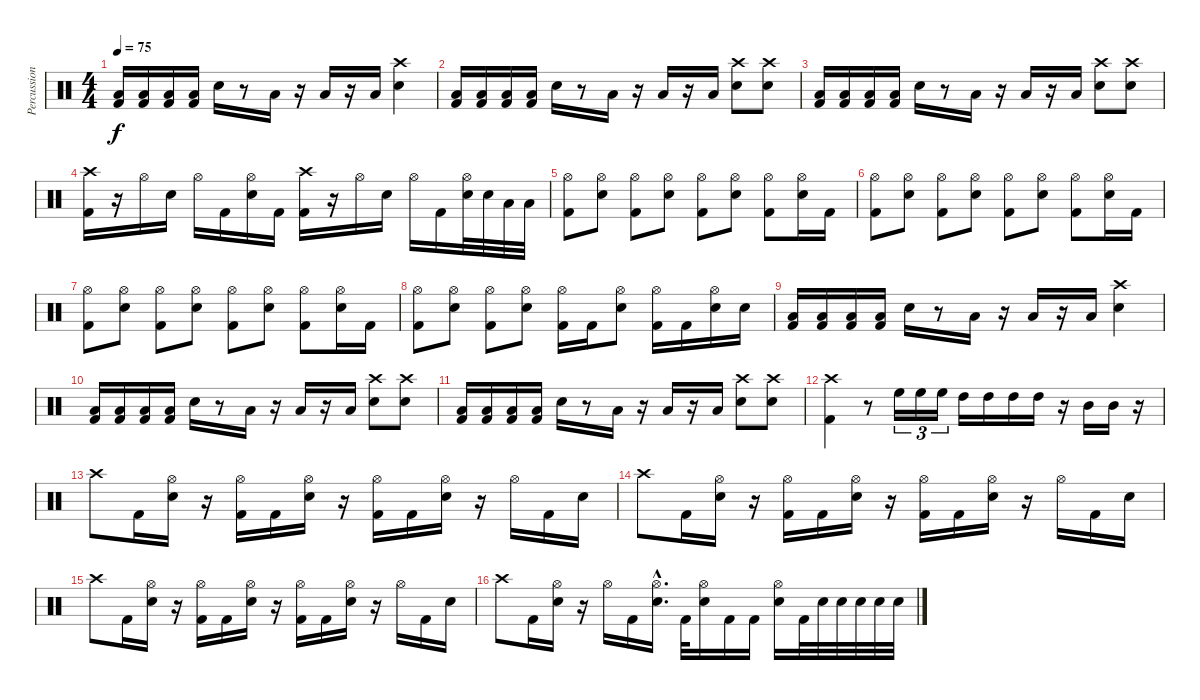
\track ("Percussion" "Percussion") {instrument percussion}
\staff {score}
\articulation defaults
\ts (4 4)
\tempo 75
\clef neutral
\ks c
("Kick (hit) 2" "Low Tom (hit)").16{dy f} ("Kick (hit) 2" "Low Tom (hit)").16 ("Kick (hit) 2" "Low Tom (hit)").16 ("Kick (hit) 2" "Low Tom (hit)").16 "Snare (hit) 2".16 r.8 "Low Tom (hit)".16 r.16 "Low Tom (hit)".16 r.16 "Low Tom (hit)".16 ("Crash high (hit)" "Snare (hit) 2").4 |
("Kick (hit) 2" "Low Tom (hit)").16 ("Kick (hit) 2" "Low Tom (hit)").16 ("Kick (hit) 2" "Low Tom (hit)").16 ("Kick (hit) 2" "Low Tom (hit)").16 "Snare (hit) 2".16 r.8 "Low Tom (hit)".16 r.16 "Low Tom (hit)".16 r.16 "Low Tom (hit)".16 ("Crash high (hit)" "Snare (hit) 2").8 ("Crash high (hit)" "Snare (hit) 2").8 |
("Kick (hit) 2" "Low Tom (hit)").16 ("Kick (hit) 2" "Low Tom (hit)").16 ("Kick (hit) 2" "Low Tom (hit)").16 ("Kick (hit) 2" "Low Tom (hit)").16 "Snare (hit) 2".16 r.8 "Low Tom (hit)".16 r.16 "Low Tom (hit)".16 r.16 "Low Tom (hit)".16 ("Crash high (hit)" "Snare (hit) 2").8 ("Crash high (hit)" "Snare (hit) 2").8 |
("Crash high (hit)" "Kick (hit) 2").16 r.16 "Hi-Hat (open)".16 "Snare (hit) 2".16 "Hi-Hat (open)".16 "Kick (hit) 2".16 ("Hi-Hat (open)" "Snare (hit) 2").16 "Kick (hit) 2".16 ("Crash high (hit)" "Kick (hit) 2").16 r.16 "Hi-Hat (open)".16 "Snare (hit) 2".16 "Hi-Hat (open)".16 "Kick (hit) 2".16 ("Hi-Hat (open)" "Snare (hit) 2").32 "Snare (hit) 2".32 "Low Tom (hit)".32 "Low Tom (hit)".32 |
("Hi-Hat (open)" "Kick (hit) 2").8 ("Hi-Hat (open)" "Snare (hit) 2").8 ("Hi-Hat (open)" "Kick (hit) 2").8 ("Hi-Hat (open)" "Snare (hit) 2").8 ("Hi-Hat (open)" "Kick (hit) 2").8 ("Hi-Hat (open)" "Snare (hit) 2").8 ("Hi-Hat (open)" "Kick (hit) 2").8 ("Hi-Hat (open)" "Snare (hit) 2").16 "Kick (hit) 2".16 |
("Hi-Hat (open)" "Kick (hit) 2").8 ("Hi-Hat (open)" "Snare (hit) 2").8 ("Hi-Hat (open)" "Kick (hit) 2").8 ("Hi-Hat (open)" "Snare (hit) 2").8 ("Hi-Hat (open)" "Kick (hit) 2").8 ("Hi-Hat (open)" "Snare (hit) 2").8 ("Hi-Hat (open)" "Kick (hit) 2").8 ("Hi-Hat (open)" "Snare (hit) 2").16 "Kick (hit) 2".16 |
("Hi-Hat (open)" "Kick (hit) 2").8 ("Hi-Hat (open)" "Snare (hit) 2").8 ("Hi-Hat (open)" "Kick (hit) 2").8 ("Hi-Hat (open)" "Snare (hit) 2").8 ("Hi-Hat (open)" "Kick (hit) 2").8 ("Hi-Hat (open)" "Snare (hit) 2").8 ("Hi-Hat (open)" "Kick (hit) 2").8 ("Hi-Hat (open)" "Snare (hit) 2").16 "Kick (hit) 2".16 |
("Hi-Hat (open)" "Kick (hit) 2").8 ("Hi-Hat (open)" "Snare (hit) 2").8 ("Hi-Hat (open)" "Kick (hit) 2").8 ("Hi-Hat (open)" "Snare (hit) 2").8 ("Hi-Hat (open)" "Kick (hit) 2").16 "Kick (hit) 2".16 ("Hi-Hat (open)" "Snare (hit) 2").8 ("Hi-Hat (open)" "Kick (hit) 2").16 "Kick (hit) 2".16 ("Hi-Hat (open)" "Snare (hit) 2").16 "Snare (hit) 2".16 |
("Kick (hit) 2" "Low Tom (hit)").16 ("Kick (hit) 2" "Low Tom (hit)").16 ("Kick (hit) 2" "Low Tom (hit)").16 ("Kick (hit) 2" "Low Tom (hit)").16 "Snare (hit) 2".16 r.8 "Low Tom (hit)".16 r.16 "Low Tom (hit)".16 r.16 "Low Tom (hit)".16 ("Crash high (hit)" "Snare (hit) 2").4 |
("Kick (hit) 2" "Low Tom (hit)").16 ("Kick (hit) 2" "Low Tom (hit)").16 ("Kick (hit) 2" "Low Tom (hit)").16 ("Kick (hit) 2" "Low Tom (hit)").16 "Snare (hit) 2".16 r.8 "Low Tom (hit)".16 r.16 "Low Tom (hit)".16 r.16 "Low Tom (hit)".16 ("Crash high (hit)" "Snare (hit) 2").8 ("Crash high (hit)" "Snare (hit) 2").8 |
("Kick (hit) 2" "Low Tom (hit)").16 ("Kick (hit) 2" "Low Tom (hit)").16 ("Kick (hit) 2" "Low Tom (hit)").16 ("Kick (hit) 2" "Low Tom (hit)").16 "Snare (hit) 2".16 r.8 "Low Tom (hit)".16 r.16 "Low Tom (hit)".16 r.16 "Low Tom (hit)".16 ("Crash high (hit)" "Snare (hit) 2").8 ("Crash high (hit)" "Snare (hit) 2").8 |
("Crash high (hit)" "Kick (hit) 2").4 r.8 "High Floor Tom (hit)".16{tu (3 2)} "High Floor Tom (hit)".16{tu (3 2)} "High Floor Tom (hit)".16{tu (3 2)} "High Tom (hit)".16 "High Tom (hit)".16 "High Tom (hit)".16 "High Tom (hit)".16 r.16 "Mid Tom (hit)".16 "Mid Tom (hit)".16 r.16 |
"Crash high (hit)".8 "Kick (hit) 2".16 ("Hi-Hat (open)" "Snare (hit) 2").16 r.16 ("Hi-Hat (open)" "Kick (hit) 2").16 "Kick (hit) 2".16 ("Hi-Hat (open)" "Snare (hit) 2").16 r.16 ("Hi-Hat (open)" "Kick (hit) 2").16 "Kick (hit) 2".16 ("Hi-Hat (open)" "Snare (hit) 2").16 r.16 "Hi-Hat (open)".16 "Kick (hit) 2".16 "Snare (hit) 2".16 |
"Crash high (hit)".8 "Kick (hit) 2".16 ("Hi-Hat (open)" "Snare (hit) 2").16 r.16 ("Hi-Hat (open)" "Kick (hit) 2").16 "Kick (hit) 2".16 ("Hi-Hat (open)" "Snare (hit) 2").16 r.16 ("Hi-Hat (open)" "Kick (hit) 2").16 "Kick (hit) 2".16 ("Hi-Hat (open)" "Snare (hit) 2").16 r.16 "Hi-Hat (open)".16 "Kick (hit) 2".16 "Snare (hit) 2".16 |
"Crash high (hit)".8 "Kick (hit) 2".16 ("Hi-Hat (open)" "Snare (hit) 2").16 r.16 ("Hi-Hat (open)" "Kick (hit) 2").16 "Kick (hit) 2".16 ("Hi-Hat (open)" "Snare (hit) 2").16 r.16 ("Hi-Hat (open)" "Kick (hit) 2").16 "Kick (hit) 2".16 ("Hi-Hat (open)" "Snare (hit) 2").16 r.16 "Hi-Hat (open)".16 "Kick (hit) 2".16 "Snare (hit) 2".16 |
"Crash high (hit)".8 "Kick (hit) 2".16 ("Hi-Hat (open)" "Snare (hit) 2").16 r.16 "Hi-Hat (open)".16 "Kick (hit) 2".16 ("Hi-Hat (open)"{hac} "Snare (hit) 2"{hac}).16{d} "Kick (hit) 2".32 ("Hi-Hat (open)" "Snare (hit) 2").16 "Kick (hit) 2".16 "Kick (hit) 2".16 ("Hi-Hat (open)" "Snare (hit) 2").16 "Kick (hit) 2".32 "Snare (hit) 2".32 "Snare (hit) 2".32 "Snare (hit) 2".32 "Snare (hit) 2".32 "Snare (hit) 2".32
